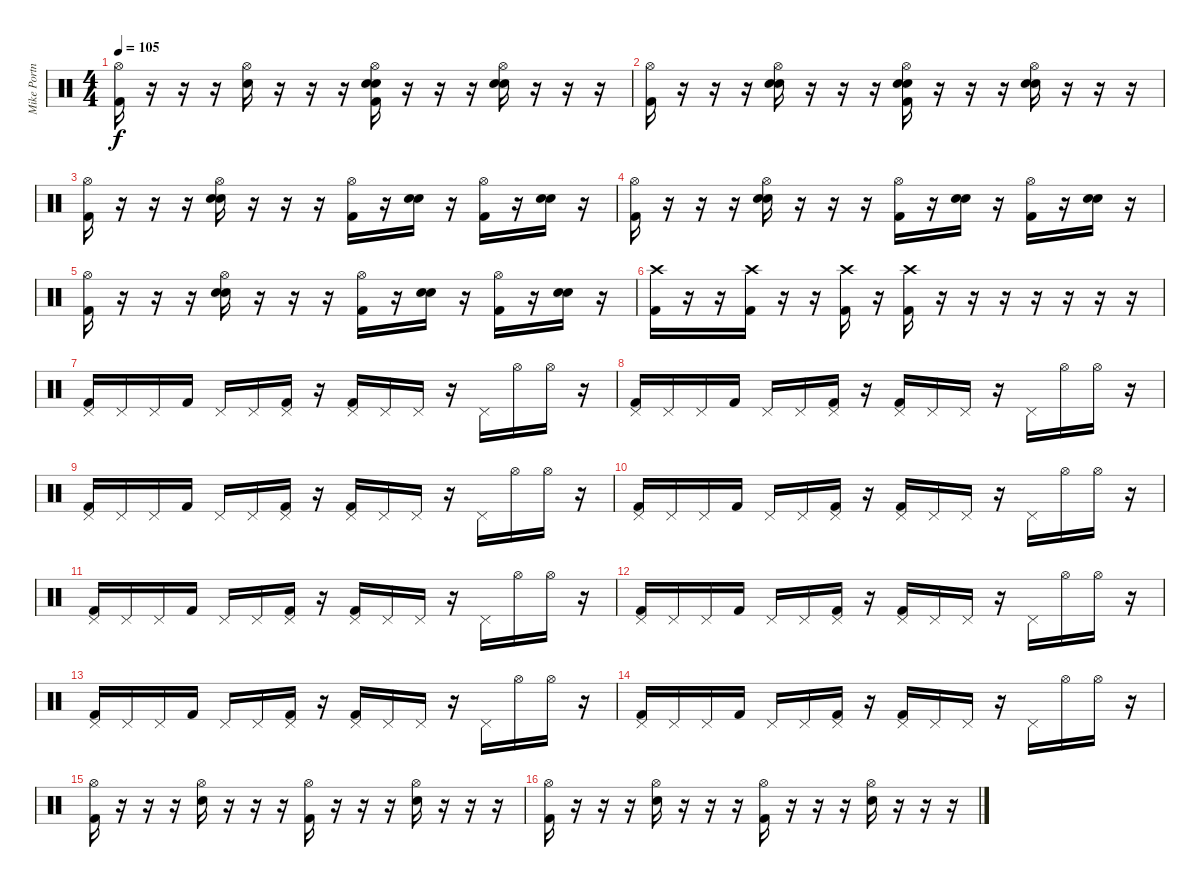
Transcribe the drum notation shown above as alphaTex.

\track ("Mike Portnoy" "Mike Portn") {instrument percussion}
\staff {score}
\articulation defaults
\ts (4 4)
\tempo 105
\clef neutral
\ks c
("Hi-Hat (open)" "Kick (hit) 2").16{dy f} r.16 r.16 r.16 ("Hi-Hat (open)" "Electric Snare (hit)").16 r.16 r.16 r.16 ("Hi-Hat (open)" "Kick (hit) 2" "Electric Snare (hit)" "Electric Snare (hit)").16 r.16 r.16 r.16 ("Hi-Hat (open)" "Electric Snare (hit)" "Electric Snare (hit)").16 r.16 r.16 r.16 |
("Hi-Hat (open)" "Kick (hit) 2").16 r.16 r.16 r.16 ("Hi-Hat (open)" "Electric Snare (hit)" "Electric Snare (hit)").16 r.16 r.16 r.16 ("Hi-Hat (open)" "Kick (hit) 2" "Electric Snare (hit)" "Electric Snare (hit)").16 r.16 r.16 r.16 ("Hi-Hat (open)" "Electric Snare (hit)" "Electric Snare (hit)").16 r.16 r.16 r.16 |
("Hi-Hat (open)" "Kick (hit) 2").16 r.16 r.16 r.16 ("Hi-Hat (open)" "Electric Snare (hit)" "Electric Snare (hit)").16 r.16 r.16 r.16 ("Hi-Hat (open)" "Kick (hit) 2").16 r.16 ("Electric Snare (hit)" "Electric Snare (hit)").16 r.16 ("Hi-Hat (open)" "Kick (hit) 2").16 r.16 ("Electric Snare (hit)" "Electric Snare (hit)").16 r.16 |
("Hi-Hat (open)" "Kick (hit) 2").16 r.16 r.16 r.16 ("Hi-Hat (open)" "Electric Snare (hit)" "Electric Snare (hit)").16 r.16 r.16 r.16 ("Hi-Hat (open)" "Kick (hit) 2").16 r.16 ("Electric Snare (hit)" "Electric Snare (hit)").16 r.16 ("Hi-Hat (open)" "Kick (hit) 2").16 r.16 ("Electric Snare (hit)" "Electric Snare (hit)").16 r.16 |
("Hi-Hat (open)" "Kick (hit) 2").16 r.16 r.16 r.16 ("Hi-Hat (open)" "Electric Snare (hit)" "Electric Snare (hit)").16 r.16 r.16 r.16 ("Hi-Hat (open)" "Kick (hit) 2").16 r.16 ("Electric Snare (hit)" "Electric Snare (hit)").16 r.16 ("Hi-Hat (open)" "Kick (hit) 2").16 r.16 ("Electric Snare (hit)" "Electric Snare (hit)").16 r.16 |
("Crash high (hit)" "Kick (hit) 2").16 r.16 r.16 ("Crash high (hit)" "Kick (hit) 2").16 r.16 r.16 ("Crash high (hit)" "Kick (hit) 2").16 r.16 ("Crash high (hit)" "Kick (hit) 2").16 r.16 r.16 r.16 r.16 r.16 r.16 r.16 |
("Pedal Hi-Hat (hit)" "Kick (hit) 2").16 "Pedal Hi-Hat (hit)".16 "Pedal Hi-Hat (hit)".16 "Kick (hit) 2".16 "Pedal Hi-Hat (hit)".16 "Pedal Hi-Hat (hit)".16 ("Pedal Hi-Hat (hit)" "Kick (hit) 2").16 r.16 ("Pedal Hi-Hat (hit)" "Kick (hit) 2").16 "Pedal Hi-Hat (hit)".16 "Pedal Hi-Hat (hit)".16 r.16 "Pedal Hi-Hat (hit)".16 "Hi-Hat (open)".16 "Hi-Hat (open)".16 r.16 |
("Pedal Hi-Hat (hit)" "Kick (hit) 2").16 "Pedal Hi-Hat (hit)".16 "Pedal Hi-Hat (hit)".16 "Kick (hit) 2".16 "Pedal Hi-Hat (hit)".16 "Pedal Hi-Hat (hit)".16 ("Pedal Hi-Hat (hit)" "Kick (hit) 2").16 r.16 ("Pedal Hi-Hat (hit)" "Kick (hit) 2").16 "Pedal Hi-Hat (hit)".16 "Pedal Hi-Hat (hit)".16 r.16 "Pedal Hi-Hat (hit)".16 "Hi-Hat (open)".16 "Hi-Hat (open)".16 r.16 |
("Pedal Hi-Hat (hit)" "Kick (hit) 2").16 "Pedal Hi-Hat (hit)".16 "Pedal Hi-Hat (hit)".16 "Kick (hit) 2".16 "Pedal Hi-Hat (hit)".16 "Pedal Hi-Hat (hit)".16 ("Pedal Hi-Hat (hit)" "Kick (hit) 2").16 r.16 ("Pedal Hi-Hat (hit)" "Kick (hit) 2").16 "Pedal Hi-Hat (hit)".16 "Pedal Hi-Hat (hit)".16 r.16 "Pedal Hi-Hat (hit)".16 "Hi-Hat (open)".16 "Hi-Hat (open)".16 r.16 |
("Pedal Hi-Hat (hit)" "Kick (hit) 2").16 "Pedal Hi-Hat (hit)".16 "Pedal Hi-Hat (hit)".16 "Kick (hit) 2".16 "Pedal Hi-Hat (hit)".16 "Pedal Hi-Hat (hit)".16 ("Pedal Hi-Hat (hit)" "Kick (hit) 2").16 r.16 ("Pedal Hi-Hat (hit)" "Kick (hit) 2").16 "Pedal Hi-Hat (hit)".16 "Pedal Hi-Hat (hit)".16 r.16 "Pedal Hi-Hat (hit)".16 "Hi-Hat (open)".16 "Hi-Hat (open)".16 r.16 |
("Pedal Hi-Hat (hit)" "Kick (hit) 2").16 "Pedal Hi-Hat (hit)".16 "Pedal Hi-Hat (hit)".16 "Kick (hit) 2".16 "Pedal Hi-Hat (hit)".16 "Pedal Hi-Hat (hit)".16 ("Pedal Hi-Hat (hit)" "Kick (hit) 2").16 r.16 ("Pedal Hi-Hat (hit)" "Kick (hit) 2").16 "Pedal Hi-Hat (hit)".16 "Pedal Hi-Hat (hit)".16 r.16 "Pedal Hi-Hat (hit)".16 "Hi-Hat (open)".16 "Hi-Hat (open)".16 r.16 |
("Pedal Hi-Hat (hit)" "Kick (hit) 2").16 "Pedal Hi-Hat (hit)".16 "Pedal Hi-Hat (hit)".16 "Kick (hit) 2".16 "Pedal Hi-Hat (hit)".16 "Pedal Hi-Hat (hit)".16 ("Pedal Hi-Hat (hit)" "Kick (hit) 2").16 r.16 ("Pedal Hi-Hat (hit)" "Kick (hit) 2").16 "Pedal Hi-Hat (hit)".16 "Pedal Hi-Hat (hit)".16 r.16 "Pedal Hi-Hat (hit)".16 "Hi-Hat (open)".16 "Hi-Hat (open)".16 r.16 |
("Pedal Hi-Hat (hit)" "Kick (hit) 2").16 "Pedal Hi-Hat (hit)".16 "Pedal Hi-Hat (hit)".16 "Kick (hit) 2".16 "Pedal Hi-Hat (hit)".16 "Pedal Hi-Hat (hit)".16 ("Pedal Hi-Hat (hit)" "Kick (hit) 2").16 r.16 ("Pedal Hi-Hat (hit)" "Kick (hit) 2").16 "Pedal Hi-Hat (hit)".16 "Pedal Hi-Hat (hit)".16 r.16 "Pedal Hi-Hat (hit)".16 "Hi-Hat (open)".16 "Hi-Hat (open)".16 r.16 |
("Pedal Hi-Hat (hit)" "Kick (hit) 2").16 "Pedal Hi-Hat (hit)".16 "Pedal Hi-Hat (hit)".16 "Kick (hit) 2".16 "Pedal Hi-Hat (hit)".16 "Pedal Hi-Hat (hit)".16 ("Pedal Hi-Hat (hit)" "Kick (hit) 2").16 r.16 ("Pedal Hi-Hat (hit)" "Kick (hit) 2").16 "Pedal Hi-Hat (hit)".16 "Pedal Hi-Hat (hit)".16 r.16 "Pedal Hi-Hat (hit)".16 "Hi-Hat (open)".16 "Hi-Hat (open)".16 r.16 |
("Hi-Hat (open)" "Kick (hit) 2").16 r.16 r.16 r.16 ("Hi-Hat (open)" "Electric Snare (hit)").16 r.16 r.16 r.16 ("Hi-Hat (open)" "Kick (hit) 2").16 r.16 r.16 r.16 ("Hi-Hat (open)" "Electric Snare (hit)").16 r.16 r.16 r.16 |
("Hi-Hat (open)" "Kick (hit) 2").16 r.16 r.16 r.16 ("Hi-Hat (open)" "Electric Snare (hit)").16 r.16 r.16 r.16 ("Hi-Hat (open)" "Kick (hit) 2").16 r.16 r.16 r.16 ("Hi-Hat (open)" "Electric Snare (hit)").16 r.16 r.16 r.16
